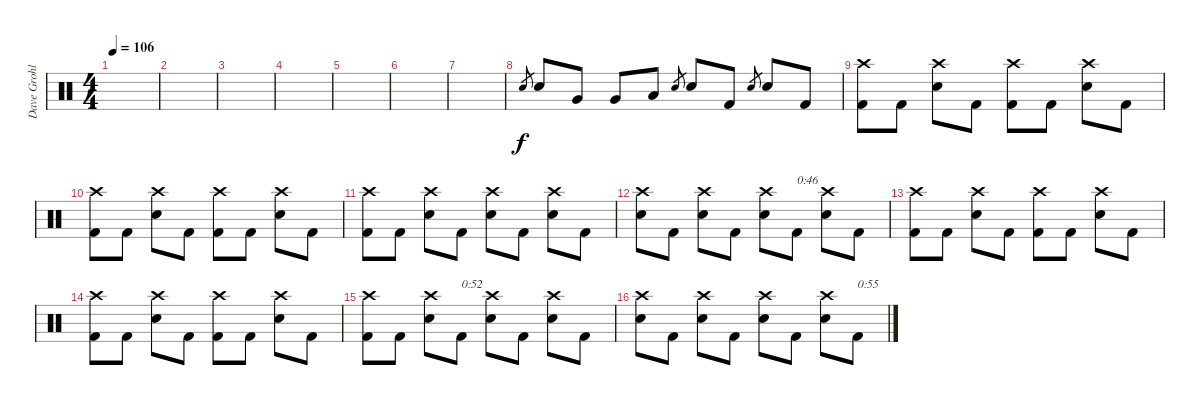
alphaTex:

\track ("Dave Grohl" "Dave Grohl") {instrument percussion}
\staff {score}
\articulation defaults
\ts (4 4)
\tempo 106
\clef neutral
\ks c
|
|
|
|
|
|
|
"Snare (hit) 2".8{gr} "Snare (hit) 2".8 "Very Low Tom (hit)".8 "Very Low Tom (hit)".8 "Low Floor Tom (hit)".8 "Snare (hit) 2".8{gr} "Snare (hit) 2".8 "Kick (hit) 2".8 "Snare (hit) 2".8{gr} "Snare (hit) 2".8 "Kick (hit) 2".8 |
("Crash high (hit)" "Kick (hit) 2").8 "Kick (hit) 2".8 ("Crash high (hit)" "Snare (hit) 2").8 "Kick (hit) 2".8 ("Crash high (hit)" "Kick (hit) 2").8 "Kick (hit) 2".8 ("Crash high (hit)" "Snare (hit) 2").8 "Kick (hit) 2".8 |
("Crash high (hit)" "Kick (hit) 2").8 "Kick (hit) 2".8 ("Crash high (hit)" "Snare (hit) 2").8 "Kick (hit) 2".8 ("Crash high (hit)" "Kick (hit) 2").8 "Kick (hit) 2".8 ("Crash high (hit)" "Snare (hit) 2").8 "Kick (hit) 2".8 |
("Crash high (hit)" "Kick (hit) 2").8 "Kick (hit) 2".8 ("Crash high (hit)" "Snare (hit) 2").8 "Kick (hit) 2".8 ("Crash high (hit)" "Snare (hit) 2").8 "Kick (hit) 2".8 ("Crash high (hit)" "Snare (hit) 2").8 "Kick (hit) 2".8 |
("Crash high (hit)" "Snare (hit) 2").8 "Kick (hit) 2".8 ("Crash high (hit)" "Snare (hit) 2").8 "Kick (hit) 2".8 ("Crash high (hit)" "Snare (hit) 2").8 "Kick (hit) 2".8{txt "0:46"} ("Crash high (hit)" "Snare (hit) 2").8 "Kick (hit) 2".8 |
("Crash high (hit)" "Kick (hit) 2").8 "Kick (hit) 2".8 ("Crash high (hit)" "Snare (hit) 2").8 "Kick (hit) 2".8 ("Crash high (hit)" "Kick (hit) 2").8 "Kick (hit) 2".8 ("Crash high (hit)" "Snare (hit) 2").8 "Kick (hit) 2".8 |
("Crash high (hit)" "Kick (hit) 2").8 "Kick (hit) 2".8 ("Crash high (hit)" "Snare (hit) 2").8 "Kick (hit) 2".8 ("Crash high (hit)" "Kick (hit) 2").8 "Kick (hit) 2".8 ("Crash high (hit)" "Snare (hit) 2").8 "Kick (hit) 2".8 |
("Crash high (hit)" "Kick (hit) 2").8 "Kick (hit) 2".8 ("Crash high (hit)" "Snare (hit) 2").8 "Kick (hit) 2".8{txt "0:52"} ("Crash high (hit)" "Snare (hit) 2").8 "Kick (hit) 2".8 ("Crash high (hit)" "Snare (hit) 2").8 "Kick (hit) 2".8 |
("Crash high (hit)" "Snare (hit) 2").8 "Kick (hit) 2".8 ("Crash high (hit)" "Snare (hit) 2").8 "Kick (hit) 2".8 ("Crash high (hit)" "Snare (hit) 2").8 "Kick (hit) 2".8 ("Crash high (hit)" "Snare (hit) 2").8 "Kick (hit) 2".8{txt "0:55"}
